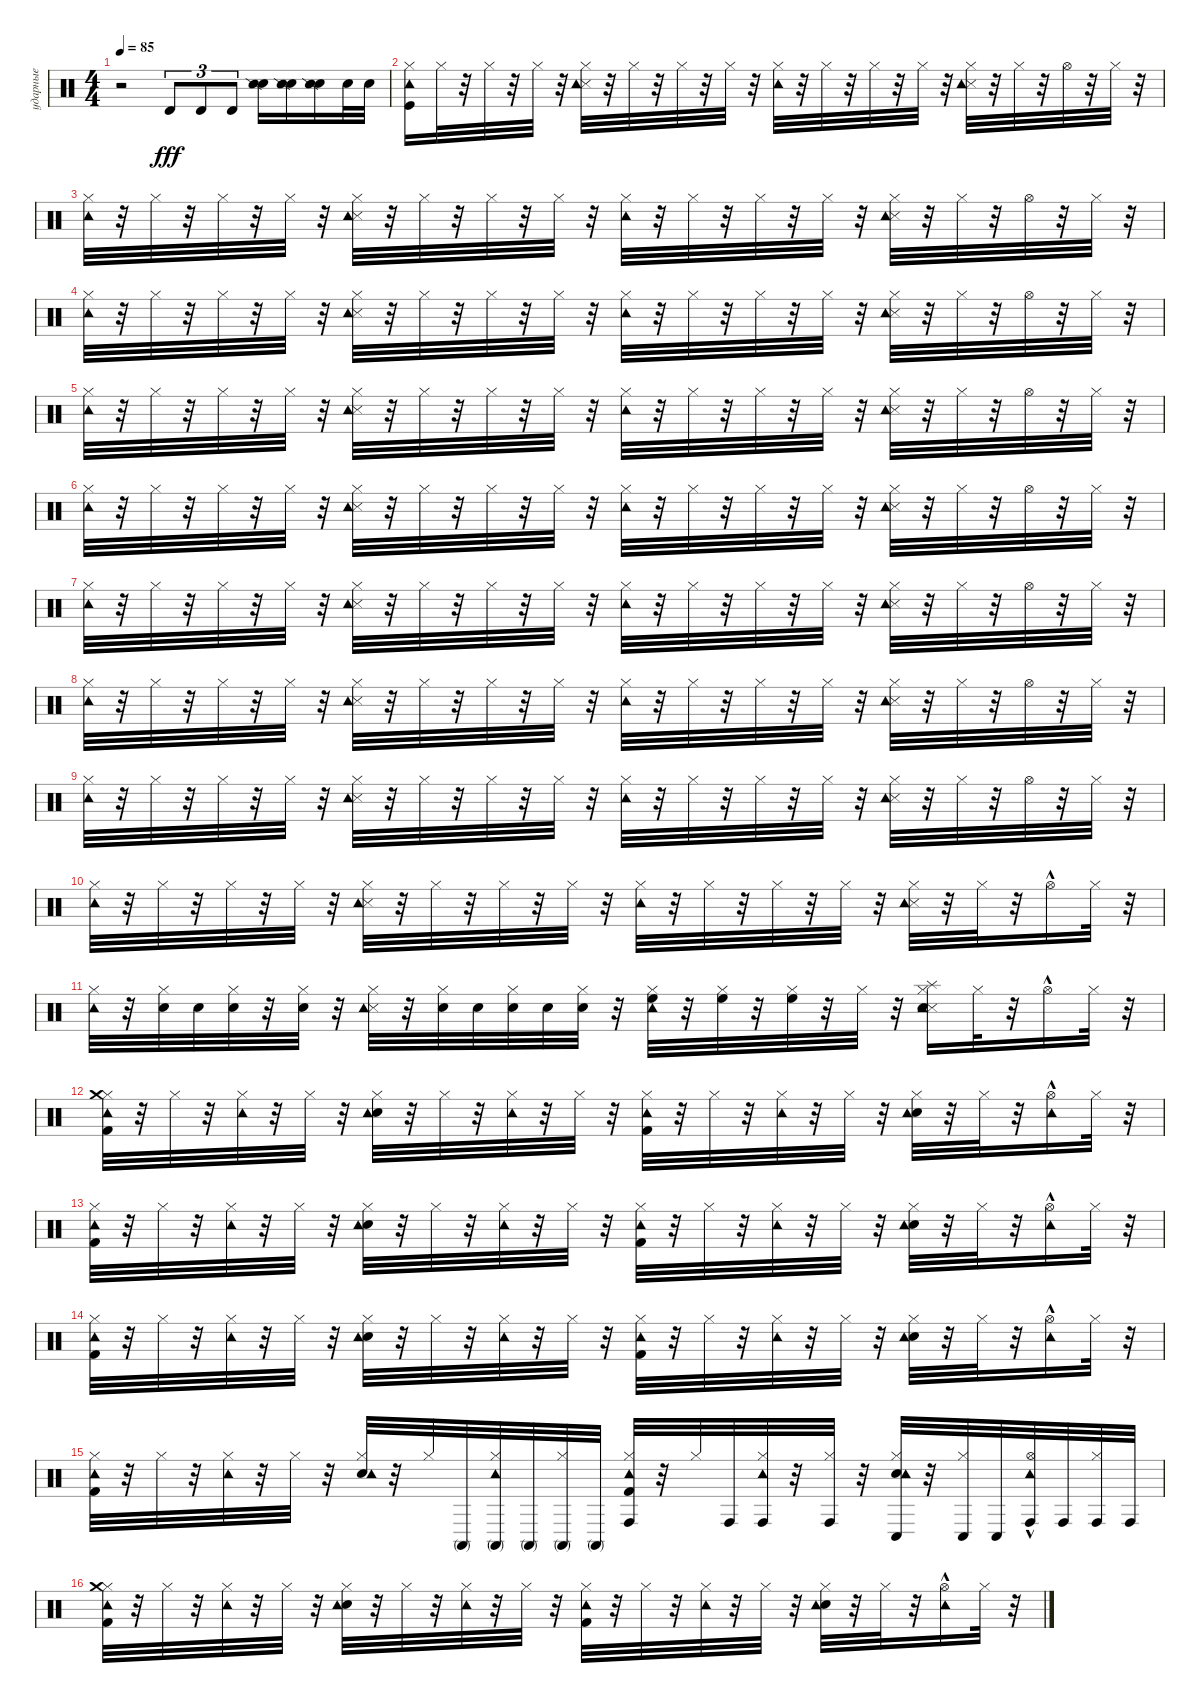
\track ("ударные" "ударные") {instrument percussion}
\staff {score}
\articulation defaults
\ts (4 4)
\tempo 85
\clef neutral
\ks c
r.2{dy fff} "Timbale high (hit)".8{tu (3 2)} "Timbale high (hit)".8{tu (3 2)} "Timbale high (hit)".8{tu (3 2)} ("Electric Snare (hit)" "Snare (side stick) 2").16 ("Electric Snare (hit)" "Snare (side stick) 2").16 ("Electric Snare (hit)" "Snare (side stick) 2").16 "Metronome (bell)".32 "Metronome (bell)".32 |
("Hi-Hat (closed)" "Kick (hit)" "Tambourine (hit)").16 "Hi-Hat (closed)".32 r.32 "Hi-Hat (closed)".32 r.32 "Hi-Hat (closed)".32 r.32 ("Hi-Hat (closed)" "Snare (side stick) 3" "Tambourine (hit)").32 r.32 "Hi-Hat (closed)".32 r.32 "Hi-Hat (closed)".32 r.32 "Hi-Hat (closed)".32 r.32 ("Hi-Hat (closed)" "Tambourine (hit)").32 r.32 "Hi-Hat (closed)".32 r.32 "Hi-Hat (closed)".32 r.32 "Hi-Hat (closed)".32 r.32 ("Hi-Hat (closed)" "Snare (side stick) 3" "Tambourine (hit)").32 r.32 "Hi-Hat (closed)".32 r.32 "Hi-Hat (open)".32 r.32 "Hi-Hat (closed)".32 r.32 |
("Tambourine (hit)" "Hi-Hat (closed)").32 r.32 "Hi-Hat (closed)".32 r.32 "Hi-Hat (closed)".32 r.32 "Hi-Hat (closed)".32 r.32 ("Hi-Hat (closed)" "Snare (side stick) 3" "Tambourine (hit)").32 r.32 "Hi-Hat (closed)".32 r.32 "Hi-Hat (closed)".32 r.32 "Hi-Hat (closed)".32 r.32 ("Hi-Hat (closed)" "Tambourine (hit)").32 r.32 "Hi-Hat (closed)".32 r.32 "Hi-Hat (closed)".32 r.32 "Hi-Hat (closed)".32 r.32 ("Hi-Hat (closed)" "Snare (side stick) 3" "Tambourine (hit)").32 r.32 "Hi-Hat (closed)".32 r.32 "Hi-Hat (open)".32 r.32 "Hi-Hat (closed)".32 r.32 |
("Tambourine (hit)" "Hi-Hat (closed)").32 r.32 "Hi-Hat (closed)".32 r.32 "Hi-Hat (closed)".32 r.32 "Hi-Hat (closed)".32 r.32 ("Hi-Hat (closed)" "Snare (side stick) 3" "Tambourine (hit)").32 r.32 "Hi-Hat (closed)".32 r.32 "Hi-Hat (closed)".32 r.32 "Hi-Hat (closed)".32 r.32 ("Hi-Hat (closed)" "Tambourine (hit)").32 r.32 "Hi-Hat (closed)".32 r.32 "Hi-Hat (closed)".32 r.32 "Hi-Hat (closed)".32 r.32 ("Hi-Hat (closed)" "Snare (side stick) 3" "Tambourine (hit)").32 r.32 "Hi-Hat (closed)".32 r.32 "Hi-Hat (open)".32 r.32 "Hi-Hat (closed)".32 r.32 |
("Tambourine (hit)" "Hi-Hat (closed)").32 r.32 "Hi-Hat (closed)".32 r.32 "Hi-Hat (closed)".32 r.32 "Hi-Hat (closed)".32 r.32 ("Hi-Hat (closed)" "Snare (side stick) 3" "Tambourine (hit)").32 r.32 "Hi-Hat (closed)".32 r.32 "Hi-Hat (closed)".32 r.32 "Hi-Hat (closed)".32 r.32 ("Hi-Hat (closed)" "Tambourine (hit)").32 r.32 "Hi-Hat (closed)".32 r.32 "Hi-Hat (closed)".32 r.32 "Hi-Hat (closed)".32 r.32 ("Hi-Hat (closed)" "Snare (side stick) 3" "Tambourine (hit)").32 r.32 "Hi-Hat (closed)".32 r.32 "Hi-Hat (open)".32 r.32 "Hi-Hat (closed)".32 r.32 |
("Hi-Hat (closed)" "Tambourine (hit)").32 r.32 "Hi-Hat (closed)".32 r.32 "Hi-Hat (closed)".32 r.32 "Hi-Hat (closed)".32 r.32 ("Hi-Hat (closed)" "Snare (side stick) 3" "Tambourine (hit)").32 r.32 "Hi-Hat (closed)".32 r.32 "Hi-Hat (closed)".32 r.32 "Hi-Hat (closed)".32 r.32 ("Hi-Hat (closed)" "Tambourine (hit)").32 r.32 "Hi-Hat (closed)".32 r.32 "Hi-Hat (closed)".32 r.32 "Hi-Hat (closed)".32 r.32 ("Hi-Hat (closed)" "Snare (side stick) 3" "Tambourine (hit)").32 r.32 "Hi-Hat (closed)".32 r.32 "Hi-Hat (open)".32 r.32 "Hi-Hat (closed)".32 r.32 |
("Hi-Hat (closed)" "Tambourine (hit)").32 r.32 "Hi-Hat (closed)".32 r.32 "Hi-Hat (closed)".32 r.32 "Hi-Hat (closed)".32 r.32 ("Hi-Hat (closed)" "Snare (side stick) 3" "Tambourine (hit)").32 r.32 "Hi-Hat (closed)".32 r.32 "Hi-Hat (closed)".32 r.32 "Hi-Hat (closed)".32 r.32 ("Hi-Hat (closed)" "Tambourine (hit)").32 r.32 "Hi-Hat (closed)".32 r.32 "Hi-Hat (closed)".32 r.32 "Hi-Hat (closed)".32 r.32 ("Hi-Hat (closed)" "Snare (side stick) 3" "Tambourine (hit)").32 r.32 "Hi-Hat (closed)".32 r.32 "Hi-Hat (open)".32 r.32 "Hi-Hat (closed)".32 r.32 |
("Hi-Hat (closed)" "Tambourine (hit)").32 r.32 "Hi-Hat (closed)".32 r.32 "Hi-Hat (closed)".32 r.32 "Hi-Hat (closed)".32 r.32 ("Hi-Hat (closed)" "Snare (side stick) 3" "Tambourine (hit)").32 r.32 "Hi-Hat (closed)".32 r.32 "Hi-Hat (closed)".32 r.32 "Hi-Hat (closed)".32 r.32 ("Hi-Hat (closed)" "Tambourine (hit)").32 r.32 "Hi-Hat (closed)".32 r.32 "Hi-Hat (closed)".32 r.32 "Hi-Hat (closed)".32 r.32 ("Hi-Hat (closed)" "Snare (side stick) 3" "Tambourine (hit)").32 r.32 "Hi-Hat (closed)".32 r.32 "Hi-Hat (open)".32 r.32 "Hi-Hat (closed)".32 r.32 |
("Hi-Hat (closed)" "Tambourine (hit)").32 r.32 "Hi-Hat (closed)".32 r.32 "Hi-Hat (closed)".32 r.32 "Hi-Hat (closed)".32 r.32 ("Hi-Hat (closed)" "Snare (side stick) 3" "Tambourine (hit)").32 r.32 "Hi-Hat (closed)".32 r.32 "Hi-Hat (closed)".32 r.32 "Hi-Hat (closed)".32 r.32 ("Hi-Hat (closed)" "Tambourine (hit)").32 r.32 "Hi-Hat (closed)".32 r.32 "Hi-Hat (closed)".32 r.32 "Hi-Hat (closed)".32 r.32 ("Hi-Hat (closed)" "Snare (side stick) 3" "Tambourine (hit)").32 r.32 "Hi-Hat (closed)".32 r.32 "Hi-Hat (open)".32 r.32 "Hi-Hat (closed)".32 r.32 |
("Hi-Hat (closed)" "Tambourine (hit)").32 r.32 "Hi-Hat (closed)".32 r.32 "Hi-Hat (closed)".32 r.32 "Hi-Hat (closed)".32 r.32 ("Hi-Hat (closed)" "Snare (side stick) 3" "Tambourine (hit)").32 r.32 "Hi-Hat (closed)".32 r.32 "Hi-Hat (closed)".32 r.32 "Hi-Hat (closed)".32 r.32 ("Hi-Hat (closed)" "Tambourine (hit)").32 r.32 "Hi-Hat (closed)".32 r.32 "Hi-Hat (closed)".32 r.32 "Hi-Hat (closed)".32 r.32 ("Hi-Hat (closed)" "Snare (side stick) 3" "Tambourine (hit)").32 r.32 "Hi-Hat (closed)".32 r.32 "Hi-Hat (open)"{hac}.16 "Hi-Hat (closed)".32 r.32 |
("Tambourine (hit)" "Hi-Hat (closed)").32 r.32 ("Metronome (bell)" "Hi-Hat (closed)").32 "Metronome (bell)".32 ("Metronome (bell)" "Hi-Hat (closed)").32 r.32 ("Metronome (bell)" "Hi-Hat (closed)").32 r.32 ("Snare (side stick) 3" "Tambourine (hit)" "Hi-Hat (closed)").32 r.32 ("Metronome (bell)" "Hi-Hat (closed)").32 "Metronome (bell)".32 ("Metronome (bell)" "Hi-Hat (closed)").32 "Metronome (bell)".32 ("Metronome (bell)" "Hi-Hat (closed)").32 r.32 ("Tambourine (hit)" "High Floor Tom (hit)" "Hi-Hat (closed)").32 r.32 ("High Floor Tom (hit)" "Hi-Hat (closed)").32 r.32 ("High Floor Tom (hit)" "Hi-Hat (closed)").32 r.32 "Hi-Hat (closed)".32 r.32 ("Snare (side stick) 3" "Tambourine (hit)" "Splash (hit)" "Electric Snare (hit)" "Hi-Hat (closed)").16 "Hi-Hat (closed)".32 r.32 "Hi-Hat (open)"{hac}.16 "Hi-Hat (closed)".32 r.32 |
("Hi-Hat (closed)" "Kick (hit) 2" "Crash medium (hit)" "Tambourine (hit)").32 r.32 "Hi-Hat (closed)".32 r.32 ("Hi-Hat (closed)" "Tambourine (hit)").32 r.32 "Hi-Hat (closed)".32 r.32 ("Hi-Hat (closed)" "Electric Snare (hit)" "Tambourine (hit)").32 r.32 "Hi-Hat (closed)".32 r.32 ("Hi-Hat (closed)" "Tambourine (hit)").32 r.32 "Hi-Hat (closed)".32 r.32 ("Hi-Hat (closed)" "Kick (hit) 2" "Tambourine (hit)").32 r.32 "Hi-Hat (closed)".32 r.32 ("Hi-Hat (closed)" "Tambourine (hit)").32 r.32 "Hi-Hat (closed)".32 r.32 ("Hi-Hat (closed)" "Electric Snare (hit)" "Tambourine (hit)").32 r.32 "Hi-Hat (closed)".32 r.32 ("Hi-Hat (open)"{hac} "Tambourine (hit)").16 "Hi-Hat (closed)".32 r.32 |
("Kick (hit) 2" "Hi-Hat (closed)" "Tambourine (hit)").32 r.32 "Hi-Hat (closed)".32 r.32 ("Hi-Hat (closed)" "Tambourine (hit)").32 r.32 "Hi-Hat (closed)".32 r.32 ("Hi-Hat (closed)" "Electric Snare (hit)" "Tambourine (hit)").32 r.32 "Hi-Hat (closed)".32 r.32 ("Hi-Hat (closed)" "Tambourine (hit)").32 r.32 "Hi-Hat (closed)".32 r.32 ("Hi-Hat (closed)" "Kick (hit) 2" "Tambourine (hit)").32 r.32 "Hi-Hat (closed)".32 r.32 ("Hi-Hat (closed)" "Tambourine (hit)").32 r.32 "Hi-Hat (closed)".32 r.32 ("Hi-Hat (closed)" "Electric Snare (hit)" "Tambourine (hit)").32 r.32 "Hi-Hat (closed)".32 r.32 ("Hi-Hat (open)"{hac} "Tambourine (hit)").16 "Hi-Hat (closed)".32 r.32 |
("Kick (hit) 2" "Hi-Hat (closed)" "Tambourine (hit)").32 r.32 "Hi-Hat (closed)".32 r.32 ("Hi-Hat (closed)" "Tambourine (hit)").32 r.32 "Hi-Hat (closed)".32 r.32 ("Hi-Hat (closed)" "Electric Snare (hit)" "Tambourine (hit)").32 r.32 "Hi-Hat (closed)".32 r.32 ("Hi-Hat (closed)" "Tambourine (hit)").32 r.32 "Hi-Hat (closed)".32 r.32 ("Hi-Hat (closed)" "Kick (hit) 2" "Tambourine (hit)").32 r.32 "Hi-Hat (closed)".32 r.32 ("Hi-Hat (closed)" "Tambourine (hit)").32 r.32 "Hi-Hat (closed)".32 r.32 ("Hi-Hat (closed)" "Electric Snare (hit)" "Tambourine (hit)").32 r.32 "Hi-Hat (closed)".32 r.32 ("Hi-Hat (open)"{hac} "Tambourine (hit)").16 "Hi-Hat (closed)".32 r.32 |
("Kick (hit) 2" "Hi-Hat (closed)" "Tambourine (hit)").32 r.32 "Hi-Hat (closed)".32 r.32 ("Hi-Hat (closed)" "Tambourine (hit)").32 r.32 "Hi-Hat (closed)".32 r.32 ("Hi-Hat (closed)" "Electric Snare (hit)" "Tambourine (hit)").32 r.32 "Hi-Hat (closed)".32 "Conga high (mute)".32 ("Hi-Hat (closed)" "Tambourine (hit)" "Conga high (mute)").32 "Conga high (mute)".32 ("Hi-Hat (closed)" "Conga high (mute)").32 "Conga high (mute)".32 ("Hi-Hat (closed)" "Kick (hit) 2" "Tambourine (hit)" "Conga high (hit)").32 r.32 "Hi-Hat (closed)".32 "Conga high (hit)".32 ("Hi-Hat (closed)" "Tambourine (hit)" "Conga high (hit)").32 r.32 ("Hi-Hat (closed)" "Conga high (hit)").32 r.32 ("Hi-Hat (closed)" "Electric Snare (hit)" "Tambourine (hit)" "Conga low (hit)").32 r.32 ("Hi-Hat (closed)" "Conga low (hit)").32 "Conga low (hit)".32 ("Hi-Hat (open)"{hac} "Tambourine (hit)" "Conga high (hit)").32 "Conga high (hit)".32 ("Hi-Hat (closed)" "Conga high (hit)").32 "Conga high (hit)".32 |
("Kick (hit) 2" "Hi-Hat (closed)" "Tambourine (hit)" "Crash medium (hit)").32 r.32 "Hi-Hat (closed)".32 r.32 ("Hi-Hat (closed)" "Tambourine (hit)").32 r.32 "Hi-Hat (closed)".32 r.32 ("Hi-Hat (closed)" "Electric Snare (hit)" "Tambourine (hit)").32 r.32 "Hi-Hat (closed)".32 r.32 ("Hi-Hat (closed)" "Tambourine (hit)").32 r.32 "Hi-Hat (closed)".32 r.32 ("Hi-Hat (closed)" "Kick (hit) 2" "Tambourine (hit)").32 r.32 "Hi-Hat (closed)".32 r.32 ("Hi-Hat (closed)" "Tambourine (hit)").32 r.32 "Hi-Hat (closed)".32 r.32 ("Hi-Hat (closed)" "Electric Snare (hit)" "Tambourine (hit)").32 r.32 "Hi-Hat (closed)".32 r.32 ("Hi-Hat (open)"{hac} "Tambourine (hit)").16 "Hi-Hat (closed)".32 r.32
